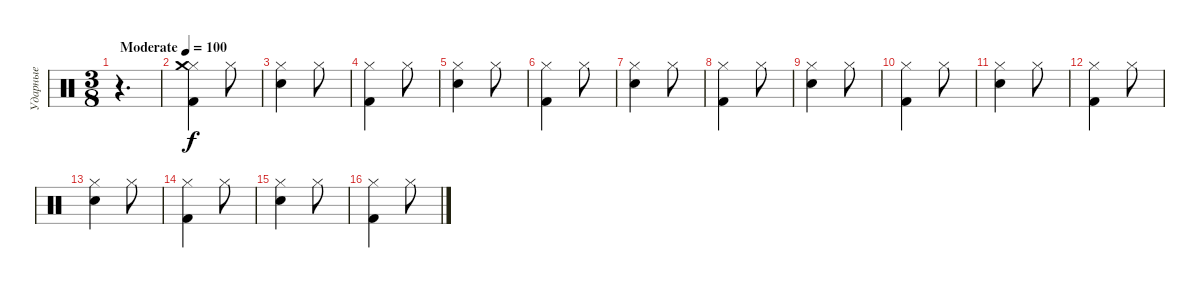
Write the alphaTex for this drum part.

\track ("Ударные" "Ударные") {instrument percussion}
\staff {score}
\articulation defaults
\ts (3 8)
\tempo (100 "Moderate")
\clef neutral
\ks c
r.4{d dy f} |
("Hi-Hat (closed)" "Kick (hit) 2" "Crash medium (hit)").4 "Hi-Hat (closed)".8 |
("Hi-Hat (closed)" "Snare (hit) 2").4 "Hi-Hat (closed)".8 |
("Hi-Hat (closed)" "Kick (hit) 2").4 "Hi-Hat (closed)".8 |
("Hi-Hat (closed)" "Snare (hit) 2").4 "Hi-Hat (closed)".8 |
("Hi-Hat (closed)" "Kick (hit) 2").4 "Hi-Hat (closed)".8 |
("Hi-Hat (closed)" "Snare (hit) 2").4 "Hi-Hat (closed)".8 |
("Hi-Hat (closed)" "Kick (hit) 2").4 "Hi-Hat (closed)".8 |
("Hi-Hat (closed)" "Snare (hit) 2").4 "Hi-Hat (closed)".8 |
("Hi-Hat (closed)" "Kick (hit) 2").4 "Hi-Hat (closed)".8 |
("Hi-Hat (closed)" "Snare (hit) 2").4 "Hi-Hat (closed)".8 |
("Hi-Hat (closed)" "Kick (hit) 2").4 "Hi-Hat (closed)".8 |
("Hi-Hat (closed)" "Snare (hit) 2").4 "Hi-Hat (closed)".8 |
("Hi-Hat (closed)" "Kick (hit) 2").4 "Hi-Hat (closed)".8 |
("Hi-Hat (closed)" "Snare (hit) 2").4 "Hi-Hat (closed)".8 |
("Hi-Hat (closed)" "Kick (hit) 2").4 "Hi-Hat (closed)".8
